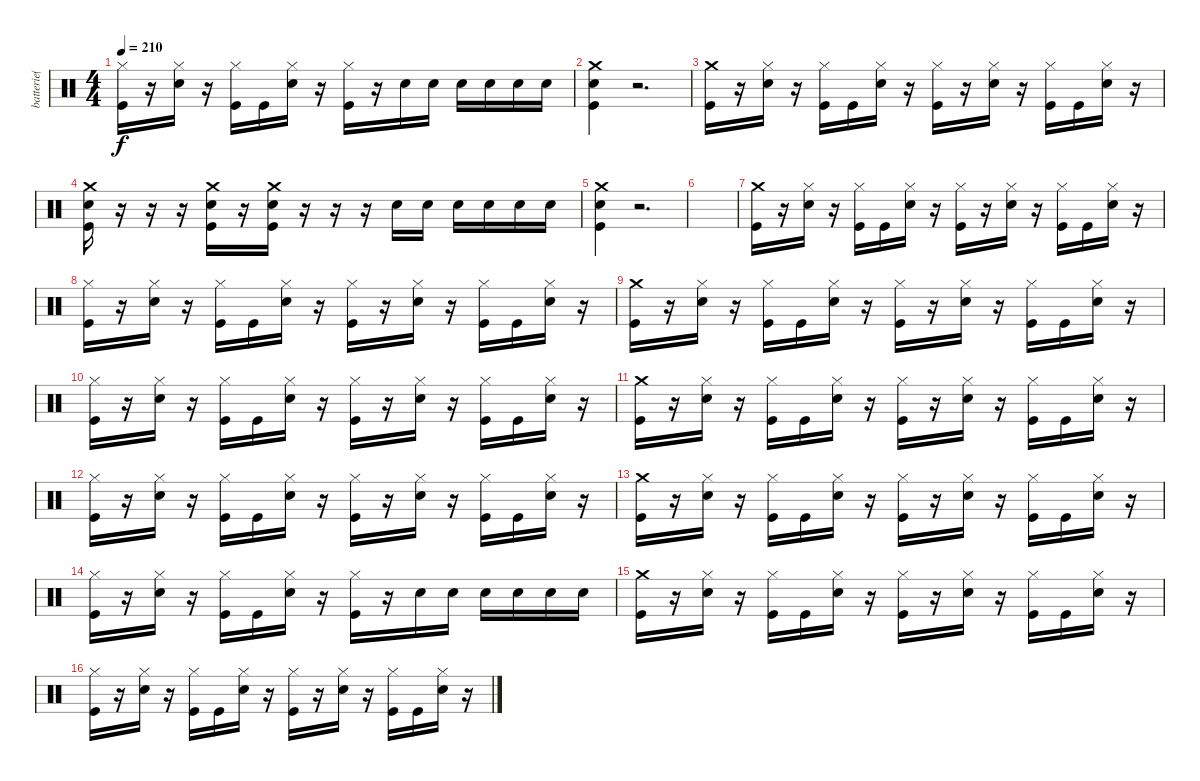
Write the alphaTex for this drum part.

\track ("batterie( Jimmy ) " "batterie( ") {instrument percussion}
\staff {score}
\articulation defaults
\ts (4 4)
\tempo 210
\clef neutral
\ks c
("Hi-Hat (closed)" "Kick (hit)").16{dy f} r.16 ("Hi-Hat (closed)" "Snare (hit) 2").16 r.16 ("Hi-Hat (closed)" "Kick (hit)").16 "Kick (hit)".16 ("Hi-Hat (closed)" "Snare (hit) 2").16 r.16 ("Hi-Hat (closed)" "Kick (hit)").16 r.16 "Snare (hit) 2".16 "Snare (hit) 2".16 "Snare (hit) 2".16 "Snare (hit) 2".16 "Snare (hit) 2".16 "Snare (hit) 2".16 |
("Crash medium (hit)" "Snare (hit) 2" "Kick (hit)").4 r.2{d} |
("Crash medium (hit)" "Kick (hit)").16 r.16 ("Hi-Hat (closed)" "Snare (hit) 2").16 r.16 ("Hi-Hat (closed)" "Kick (hit)").16 "Kick (hit)".16 ("Hi-Hat (closed)" "Snare (hit) 2").16 r.16 ("Hi-Hat (closed)" "Kick (hit)").16 r.16 ("Hi-Hat (closed)" "Snare (hit) 2").16 r.16 ("Hi-Hat (closed)" "Kick (hit)").16 "Kick (hit)".16 ("Hi-Hat (closed)" "Snare (hit) 2").16 r.16 |
("Crash medium (hit)" "Snare (hit) 2" "Kick (hit)").16 r.16 r.16 r.16 ("Crash medium (hit)" "Snare (hit) 2" "Kick (hit)").16 r.16 ("Crash medium (hit)" "Snare (hit) 2" "Kick (hit)").16 r.16 r.16 r.16 "Snare (hit) 2".16 "Snare (hit) 2".16 "Snare (hit) 2".16 "Snare (hit) 2".16 "Snare (hit) 2".16 "Snare (hit) 2".16 |
("Crash medium (hit)" "Snare (hit) 2" "Kick (hit)").4 r.2{d} |
|
("Crash medium (hit)" "Kick (hit)").16 r.16 ("Hi-Hat (closed)" "Snare (hit) 2").16 r.16 ("Hi-Hat (closed)" "Kick (hit)").16 "Kick (hit)".16 ("Hi-Hat (closed)" "Snare (hit) 2").16 r.16 ("Hi-Hat (closed)" "Kick (hit)").16 r.16 ("Hi-Hat (closed)" "Snare (hit) 2").16 r.16 ("Hi-Hat (closed)" "Kick (hit)").16 "Kick (hit)".16 ("Hi-Hat (closed)" "Snare (hit) 2").16 r.16 |
("Hi-Hat (closed)" "Kick (hit)").16 r.16 ("Hi-Hat (closed)" "Snare (hit) 2").16 r.16 ("Hi-Hat (closed)" "Kick (hit)").16 "Kick (hit)".16 ("Hi-Hat (closed)" "Snare (hit) 2").16 r.16 ("Hi-Hat (closed)" "Kick (hit)").16 r.16 ("Hi-Hat (closed)" "Snare (hit) 2").16 r.16 ("Hi-Hat (closed)" "Kick (hit)").16 "Kick (hit)".16 ("Hi-Hat (closed)" "Snare (hit) 2").16 r.16 |
("Crash medium (hit)" "Kick (hit)").16 r.16 ("Hi-Hat (closed)" "Snare (hit) 2").16 r.16 ("Hi-Hat (closed)" "Kick (hit)").16 "Kick (hit)".16 ("Hi-Hat (closed)" "Snare (hit) 2").16 r.16 ("Hi-Hat (closed)" "Kick (hit)").16 r.16 ("Hi-Hat (closed)" "Snare (hit) 2").16 r.16 ("Hi-Hat (closed)" "Kick (hit)").16 "Kick (hit)".16 ("Hi-Hat (closed)" "Snare (hit) 2").16 r.16 |
("Hi-Hat (closed)" "Kick (hit)").16 r.16 ("Hi-Hat (closed)" "Snare (hit) 2").16 r.16 ("Hi-Hat (closed)" "Kick (hit)").16 "Kick (hit)".16 ("Hi-Hat (closed)" "Snare (hit) 2").16 r.16 ("Hi-Hat (closed)" "Kick (hit)").16 r.16 ("Hi-Hat (closed)" "Snare (hit) 2").16 r.16 ("Hi-Hat (closed)" "Kick (hit)").16 "Kick (hit)".16 ("Hi-Hat (closed)" "Snare (hit) 2").16 r.16 |
("Crash medium (hit)" "Kick (hit)").16 r.16 ("Hi-Hat (closed)" "Snare (hit) 2").16 r.16 ("Hi-Hat (closed)" "Kick (hit)").16 "Kick (hit)".16 ("Hi-Hat (closed)" "Snare (hit) 2").16 r.16 ("Hi-Hat (closed)" "Kick (hit)").16 r.16 ("Hi-Hat (closed)" "Snare (hit) 2").16 r.16 ("Hi-Hat (closed)" "Kick (hit)").16 "Kick (hit)".16 ("Hi-Hat (closed)" "Snare (hit) 2").16 r.16 |
("Hi-Hat (closed)" "Kick (hit)").16 r.16 ("Hi-Hat (closed)" "Snare (hit) 2").16 r.16 ("Hi-Hat (closed)" "Kick (hit)").16 "Kick (hit)".16 ("Hi-Hat (closed)" "Snare (hit) 2").16 r.16 ("Hi-Hat (closed)" "Kick (hit)").16 r.16 ("Hi-Hat (closed)" "Snare (hit) 2").16 r.16 ("Hi-Hat (closed)" "Kick (hit)").16 "Kick (hit)".16 ("Hi-Hat (closed)" "Snare (hit) 2").16 r.16 |
("Crash medium (hit)" "Kick (hit)").16 r.16 ("Hi-Hat (closed)" "Snare (hit) 2").16 r.16 ("Hi-Hat (closed)" "Kick (hit)").16 "Kick (hit)".16 ("Hi-Hat (closed)" "Snare (hit) 2").16 r.16 ("Hi-Hat (closed)" "Kick (hit)").16 r.16 ("Hi-Hat (closed)" "Snare (hit) 2").16 r.16 ("Hi-Hat (closed)" "Kick (hit)").16 "Kick (hit)".16 ("Hi-Hat (closed)" "Snare (hit) 2").16 r.16 |
("Hi-Hat (closed)" "Kick (hit)").16 r.16 ("Hi-Hat (closed)" "Snare (hit) 2").16 r.16 ("Hi-Hat (closed)" "Kick (hit)").16 "Kick (hit)".16 ("Hi-Hat (closed)" "Snare (hit) 2").16 r.16 ("Hi-Hat (closed)" "Kick (hit)").16 r.16 "Snare (hit) 2".16 "Snare (hit) 2".16 "Snare (hit) 2".16 "Snare (hit) 2".16 "Snare (hit) 2".16 "Snare (hit) 2".16 |
("Crash medium (hit)" "Kick (hit)").16 r.16 ("Hi-Hat (closed)" "Snare (hit) 2").16 r.16 ("Hi-Hat (closed)" "Kick (hit)").16 "Kick (hit)".16 ("Hi-Hat (closed)" "Snare (hit) 2").16 r.16 ("Hi-Hat (closed)" "Kick (hit)").16 r.16 ("Hi-Hat (closed)" "Snare (hit) 2").16 r.16 ("Hi-Hat (closed)" "Kick (hit)").16 "Kick (hit)".16 ("Hi-Hat (closed)" "Snare (hit) 2").16 r.16 |
("Hi-Hat (closed)" "Kick (hit)").16 r.16 ("Hi-Hat (closed)" "Snare (hit) 2").16 r.16 ("Hi-Hat (closed)" "Kick (hit)").16 "Kick (hit)".16 ("Hi-Hat (closed)" "Snare (hit) 2").16 r.16 ("Hi-Hat (closed)" "Kick (hit)").16 r.16 ("Hi-Hat (closed)" "Snare (hit) 2").16 r.16 ("Hi-Hat (closed)" "Kick (hit)").16 "Kick (hit)".16 ("Hi-Hat (closed)" "Snare (hit) 2").16 r.16
